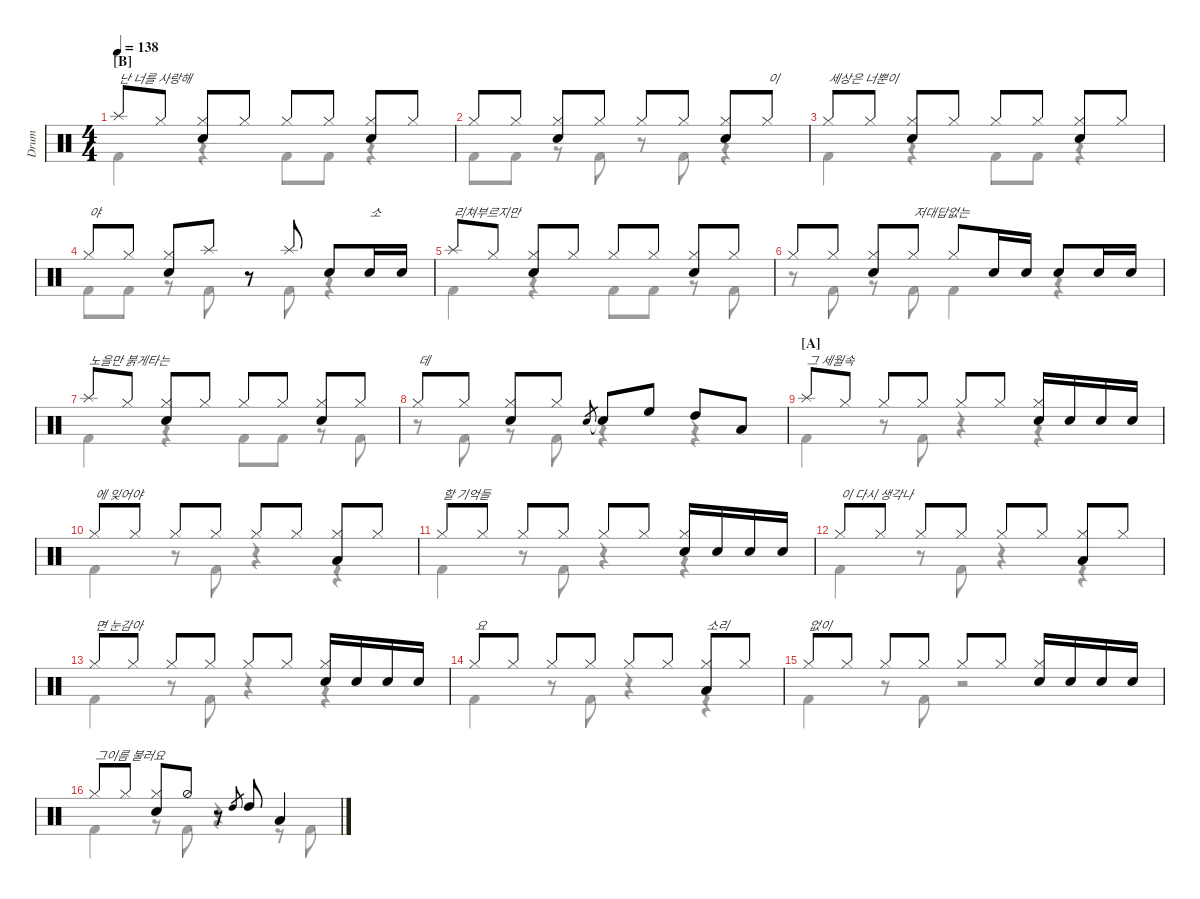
\defaultSystemsLayout 4
\hideDynamics
\bracketExtendMode nobrackets
\track ("Drumkit" "Drum") {instrument percussion}
\staff {score}
\articulation defaults
\voice
\ts (4 4)
\section ("B" "")
\tempo 138
\clef neutral
\ks c "Splash (hit)".8{txt "난 너를 사랑해" dy mf beam Up} "Hi-Hat (closed)".8{beam Up}
("Hi-Hat (closed)" "Snare (hit) 2").8{beam Up} "Hi-Hat (closed)".8{beam Up} "Hi-Hat (closed)".8{beam Up} "Hi-Hat (closed)".8{beam Up} ("Hi-Hat (closed)" "Snare (hit) 2").8{beam Up} "Hi-Hat (closed)".8{beam Up} |
"Hi-Hat (closed)".8{beam Up} "Hi-Hat (closed)".8{beam Up} ("Hi-Hat (closed)" "Snare (hit) 2").8{beam Up} "Hi-Hat (closed)".8{beam Up} "Hi-Hat (closed)".8{beam Up} "Hi-Hat (closed)".8{beam Up} ("Hi-Hat (closed)" "Snare (hit) 2").8{beam Up} "Hi-Hat (closed)".8{txt "이" beam Up} |
"Hi-Hat (closed)".8{txt "세상은 너뿐이" beam Up} "Hi-Hat (closed)".8{beam Up} ("Hi-Hat (closed)" "Snare (hit) 2").8{beam Up} "Hi-Hat (closed)".8{beam Up} "Hi-Hat (closed)".8{beam Up} "Hi-Hat (closed)".8{beam Up} ("Hi-Hat (closed)" "Snare (hit) 2").8{beam Up} "Hi-Hat (closed)".8{beam Up} |
"Hi-Hat (closed)".8{txt "야" beam Up} "Hi-Hat (closed)".8{beam Up} ("Hi-Hat (closed)" "Snare (hit) 2").8{beam Up} "Splash (hit)".8{beam Up} r.8{beam Up} "Splash (hit)".8{beam Up} "Snare (hit) 2".8{beam Up} "Snare (hit) 2".16{txt "소" beam Up} "Snare (hit) 2".16{beam Up} |
"Splash (hit)".8{txt "리쳐부르지만" beam Up} "Hi-Hat (closed)".8{beam Up} ("Hi-Hat (closed)" "Snare (hit) 2").8{beam Up} "Hi-Hat (closed)".8{beam Up} "Hi-Hat (closed)".8{beam Up} "Hi-Hat (closed)".8{beam Up} ("Hi-Hat (closed)" "Snare (hit) 2").8{beam Up} "Hi-Hat (closed)".8{beam Up} |
"Hi-Hat (closed)".8{beam Up} "Hi-Hat (closed)".8{beam Up} ("Hi-Hat (closed)" "Snare (hit) 2").8{beam Up} "Hi-Hat (closed)".8{txt "저대답없는" beam Up} "Hi-Hat (closed)".8{beam Up} "Snare (hit) 2".16{beam Up} "Snare (hit) 2".16{beam Up} "Snare (hit) 2".8{beam Up} "Snare (hit) 2".16{beam Up} "Snare (hit) 2".16{beam Up} |
"Splash (hit)".8{txt "노을만 붉게타는" beam Up} "Hi-Hat (closed)".8{beam Up} ("Hi-Hat (closed)" "Snare (hit) 2").8{beam Up} "Hi-Hat (closed)".8{beam Up} "Hi-Hat (closed)".8{beam Up} "Hi-Hat (closed)".8{beam Up} ("Hi-Hat (closed)" "Snare (hit) 2").8{beam Up} "Hi-Hat (closed)".8{beam Up} |
"Hi-Hat (closed)".8{txt "데" beam Up} "Hi-Hat (closed)".8{beam Up} ("Hi-Hat (closed)" "Snare (hit) 2").8{beam Up} "Hi-Hat (closed)".8{beam Up} "Snare (hit) 2".8{gr beam Up} "Snare (hit) 2"{t}.8{beam Up} "High Floor Tom (hit)".8{beam Up} "High Tom (hit)".8{beam Up} "Low Tom (hit)".8{beam Up} |
\section ("A" "")
"Splash (hit)".8{txt "그 세월속" beam Up} "Hi-Hat (closed)".8{beam Up} "Hi-Hat (closed)".8{beam Up} "Hi-Hat (closed)".8{beam Up} "Hi-Hat (closed)".8{beam Up} "Hi-Hat (closed)".8{beam Up} ("Hi-Hat (closed)" "Snare (hit) 2").16{beam Up} "Snare (hit) 2".16{beam Up} "Snare (hit) 2".16{beam Up} "Snare (hit) 2".16{beam Up} |
"Hi-Hat (closed)".8{txt "에 잊어야" beam Up} "Hi-Hat (closed)".8{beam Up} "Hi-Hat (closed)".8{beam Up} "Hi-Hat (closed)".8{beam Up} "Hi-Hat (closed)".8{beam Up} "Hi-Hat (closed)".8{beam Up} ("Hi-Hat (closed)" "Low Tom (hit)").8{beam Up} "Hi-Hat (closed)".8{beam Up} |
"Hi-Hat (closed)".8{txt "할 기억들" beam Up} "Hi-Hat (closed)".8{beam Up} "Hi-Hat (closed)".8{beam Up} "Hi-Hat (closed)".8{beam Up} "Hi-Hat (closed)".8{beam Up} "Hi-Hat (closed)".8{beam Up} ("Hi-Hat (closed)" "Snare (hit) 2").16{beam Up} "Snare (hit) 2".16{beam Up} "Snare (hit) 2".16{beam Up} "Snare (hit) 2".16{beam Up} |
"Hi-Hat (closed)".8{txt "이 다시 생각나" beam Up} "Hi-Hat (closed)".8{beam Up} "Hi-Hat (closed)".8{beam Up} "Hi-Hat (closed)".8{beam Up} "Hi-Hat (closed)".8{beam Up} "Hi-Hat (closed)".8{beam Up} ("Hi-Hat (closed)" "Low Tom (hit)").8{beam Up} "Hi-Hat (closed)".8{beam Up} |
"Hi-Hat (closed)".8{txt "면 눈감아" beam Up} "Hi-Hat (closed)".8{beam Up} "Hi-Hat (closed)".8{beam Up} "Hi-Hat (closed)".8{beam Up} "Hi-Hat (closed)".8{beam Up} "Hi-Hat (closed)".8{beam Up} ("Hi-Hat (closed)" "Snare (hit) 2").16{beam Up} "Snare (hit) 2".16{beam Up} "Snare (hit) 2".16{beam Up} "Snare (hit) 2".16{beam Up} |
"Hi-Hat (closed)".8{txt "요 " beam Up} "Hi-Hat (closed)".8{beam Up} "Hi-Hat (closed)".8{beam Up} "Hi-Hat (closed)".8{beam Up} "Hi-Hat (closed)".8{beam Up} "Hi-Hat (closed)".8{beam Up} ("Hi-Hat (closed)" "Low Tom (hit)").8{txt "소리" beam Up} "Hi-Hat (closed)".8{beam Up} |
"Hi-Hat (closed)".8{txt "없이" beam Up} "Hi-Hat (closed)".8{beam Up} "Hi-Hat (closed)".8{beam Up} "Hi-Hat (closed)".8{beam Up} "Hi-Hat (closed)".8{beam Up} "Hi-Hat (closed)".8{beam Up} ("Hi-Hat (closed)" "Snare (hit) 2").16{beam Up} "Snare (hit) 2".16{beam Up} "Snare (hit) 2".16{beam Up} "Snare (hit) 2".16{beam Up} |
"Hi-Hat (closed)".8{txt "그이름 불러요" beam Up} "Hi-Hat (closed)".8{beam Up} ("Hi-Hat (closed)" "Snare (hit) 2").8{beam Up} "Hi-Hat (half)".8{beam Up} r.8{beam Up} "High Tom (hit)".8{gr beam Up} "High Tom (hit)".8{beam Up} "Low Tom (hit)".4{beam Up}
\voice
\clef neutral
\ottava regular
\simile none
\ks c
|
|
|
|
|
|
|
|
|
|
|
|
|
|
|
\voice
\clef neutral
\ottava regular
\simile none
\ks c "Kick (hit) 2".4{dy mf beam Down}
r.4{beam Down} "Kick (hit) 2".8{beam Down} "Kick (hit) 2".8{beam Down} r.4{beam Down} |
"Kick (hit) 2".8{beam Down} "Kick (hit) 2".8{beam Down} r.8{beam Down} "Kick (hit) 2".8{beam Down} r.8{beam Down} "Kick (hit) 2".8{beam Down} r.4{beam Down} |
"Kick (hit) 2".4{beam Down} r.4{beam Down} "Kick (hit) 2".8{beam Down} "Kick (hit) 2".8{beam Down} r.4{beam Down} |
"Kick (hit) 2".8{beam Down} "Kick (hit) 2".8{beam Down} r.8{beam Down} "Kick (hit) 2".8{beam Down} r.8{beam Down} "Kick (hit) 2".8{beam Down} r.4{beam Down} |
"Kick (hit) 2".4{beam Down} r.4{beam Down} "Kick (hit) 2".8{beam Down} "Kick (hit) 2".8{beam Down} r.8{beam Down} "Kick (hit) 2".8{beam Down} |
r.8{beam Down} "Kick (hit) 2".8{beam Down} r.8{beam Down} "Kick (hit) 2".8{beam Down} "Kick (hit) 2".4{beam Down} r.4{beam Down} |
"Kick (hit) 2".4{beam Down} r.4{beam Down} "Kick (hit) 2".8{beam Down} "Kick (hit) 2".8{beam Down} r.8{beam Down} "Kick (hit) 2".8{beam Down} |
r.8{beam Down} "Kick (hit) 2".8{beam Down} r.8{beam Down} "Kick (hit) 2".8{beam Down} r.4{beam Down} r.4{beam Down} |
"Kick (hit) 2".4{beam Down} r.8{beam Down} "Kick (hit) 2".8{beam Down} r.4{beam Down} r.4{beam Down} |
"Kick (hit) 2".4{beam Down} r.8{beam Down} "Kick (hit) 2".8{beam Down} r.4{beam Down} r.4{beam Down} |
"Kick (hit) 2".4{beam Down} r.8{beam Down} "Kick (hit) 2".8{beam Down} r.4{beam Down} r.4{beam Down} |
"Kick (hit) 2".4{beam Down} r.8{beam Down} "Kick (hit) 2".8{beam Down} r.4{beam Down} r.4{beam Down} |
"Kick (hit) 2".4{beam Down} r.8{beam Down} "Kick (hit) 2".8{beam Down} r.4{beam Down} r.4{beam Down} |
"Kick (hit) 2".4{beam Down} r.8{beam Down} "Kick (hit) 2".8{beam Down} r.4{beam Down} r.4{beam Down} |
"Kick (hit) 2".4{beam Down} r.8{beam Down} "Kick (hit) 2".8{beam Down} r.2{beam Down} |
"Kick (hit) 2".4{beam Down} r.8{beam Down} "Kick (hit) 2".8{beam Down} r.4{beam Down} r.8{beam Down} "Kick (hit) 2".8{beam Down}
